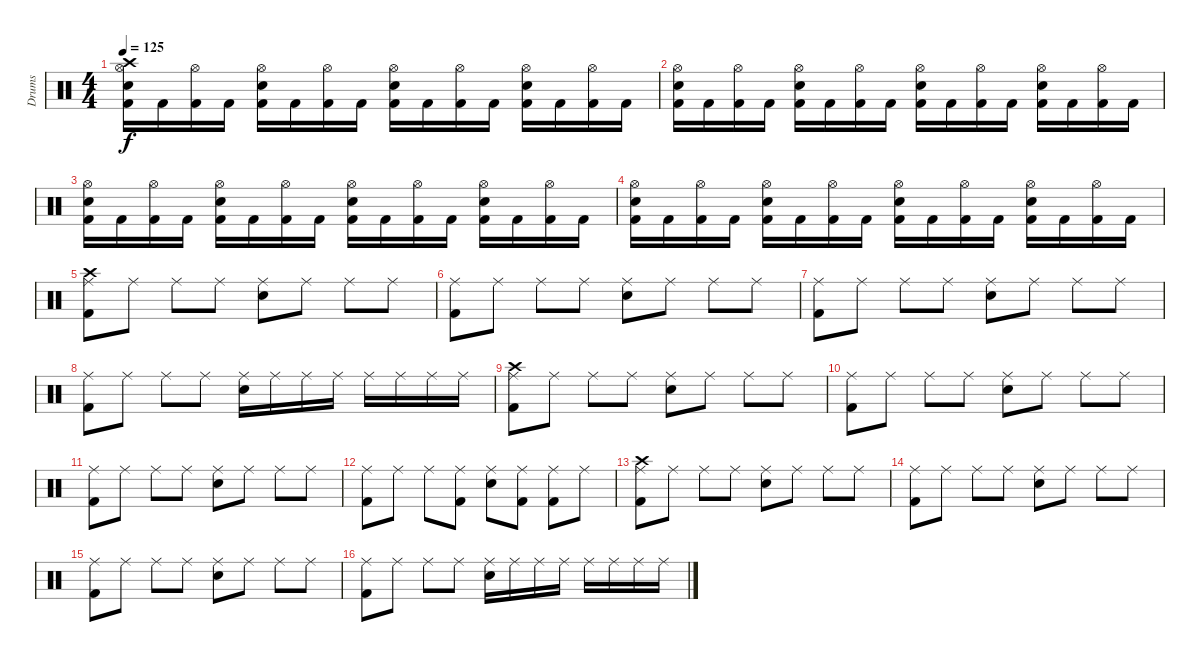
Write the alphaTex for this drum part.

\track ("Drums" "Drums") {instrument percussion}
\staff {score}
\articulation defaults
\ts (4 4)
\tempo 125
\clef neutral
\ks c
("Crash high (hit)" "Hi-Hat (open)" "Snare (hit) 2" "Kick (hit) 2").16{dy f} "Kick (hit) 2".16 ("Hi-Hat (open)" "Kick (hit) 2").16 "Kick (hit) 2".16 ("Hi-Hat (open)" "Snare (hit) 2" "Kick (hit) 2").16 "Kick (hit) 2".16 ("Hi-Hat (open)" "Kick (hit) 2").16 "Kick (hit) 2".16 ("Hi-Hat (open)" "Snare (hit) 2" "Kick (hit) 2").16 "Kick (hit) 2".16 ("Hi-Hat (open)" "Kick (hit) 2").16 "Kick (hit) 2".16 ("Hi-Hat (open)" "Snare (hit) 2" "Kick (hit) 2").16 "Kick (hit) 2".16 ("Hi-Hat (open)" "Kick (hit) 2").16 "Kick (hit) 2".16 |
("Hi-Hat (open)" "Snare (hit) 2" "Kick (hit) 2").16 "Kick (hit) 2".16 ("Hi-Hat (open)" "Kick (hit) 2").16 "Kick (hit) 2".16 ("Hi-Hat (open)" "Snare (hit) 2" "Kick (hit) 2").16 "Kick (hit) 2".16 ("Hi-Hat (open)" "Kick (hit) 2").16 "Kick (hit) 2".16 ("Hi-Hat (open)" "Snare (hit) 2" "Kick (hit) 2").16 "Kick (hit) 2".16 ("Hi-Hat (open)" "Kick (hit) 2").16 "Kick (hit) 2".16 ("Hi-Hat (open)" "Snare (hit) 2" "Kick (hit) 2").16 "Kick (hit) 2".16 ("Hi-Hat (open)" "Kick (hit) 2").16 "Kick (hit) 2".16 |
("Hi-Hat (open)" "Snare (hit) 2" "Kick (hit) 2").16 "Kick (hit) 2".16 ("Hi-Hat (open)" "Kick (hit) 2").16 "Kick (hit) 2".16 ("Hi-Hat (open)" "Snare (hit) 2" "Kick (hit) 2").16 "Kick (hit) 2".16 ("Hi-Hat (open)" "Kick (hit) 2").16 "Kick (hit) 2".16 ("Hi-Hat (open)" "Snare (hit) 2" "Kick (hit) 2").16 "Kick (hit) 2".16 ("Hi-Hat (open)" "Kick (hit) 2").16 "Kick (hit) 2".16 ("Hi-Hat (open)" "Snare (hit) 2" "Kick (hit) 2").16 "Kick (hit) 2".16 ("Hi-Hat (open)" "Kick (hit) 2").16 "Kick (hit) 2".16 |
("Hi-Hat (open)" "Snare (hit) 2" "Kick (hit) 2").16 "Kick (hit) 2".16 ("Hi-Hat (open)" "Kick (hit) 2").16 "Kick (hit) 2".16 ("Hi-Hat (open)" "Snare (hit) 2" "Kick (hit) 2").16 "Kick (hit) 2".16 ("Hi-Hat (open)" "Kick (hit) 2").16 "Kick (hit) 2".16 ("Hi-Hat (open)" "Snare (hit) 2" "Kick (hit) 2").16 "Kick (hit) 2".16 ("Hi-Hat (open)" "Kick (hit) 2").16 "Kick (hit) 2".16 ("Hi-Hat (open)" "Snare (hit) 2" "Kick (hit) 2").16 "Kick (hit) 2".16 ("Hi-Hat (open)" "Kick (hit) 2").16 "Kick (hit) 2".16 |
("Crash high (hit)" "Ride (middle)" "Kick (hit) 2").8 "Ride (middle)".8 "Ride (middle)".8 "Ride (middle)".8 ("Ride (middle)" "Snare (hit) 2").8 "Ride (middle)".8 "Ride (middle)".8 "Ride (middle)".8 |
("Ride (middle)" "Kick (hit) 2").8 "Ride (middle)".8 "Ride (middle)".8 "Ride (middle)".8 ("Ride (middle)" "Snare (hit) 2").8 "Ride (middle)".8 "Ride (middle)".8 "Ride (middle)".8 |
("Ride (middle)" "Kick (hit) 2").8 "Ride (middle)".8 "Ride (middle)".8 "Ride (middle)".8 ("Ride (middle)" "Snare (hit) 2").8 "Ride (middle)".8 "Ride (middle)".8 "Ride (middle)".8 |
("Ride (middle)" "Kick (hit) 2").8 "Ride (middle)".8 "Ride (middle)".8 "Ride (middle)".8 ("Ride (middle)" "Snare (hit) 2").16 "Ride (middle)".16 "Ride (middle)".16 "Ride (middle)".16 "Ride (middle)".16 "Ride (middle)".16 "Ride (middle)".16 "Ride (middle)".16 |
("Crash high (hit)" "Ride (middle)" "Kick (hit) 2").8 "Ride (middle)".8 "Ride (middle)".8 "Ride (middle)".8 ("Ride (middle)" "Snare (hit) 2").8 "Ride (middle)".8 "Ride (middle)".8 "Ride (middle)".8 |
("Ride (middle)" "Kick (hit) 2").8 "Ride (middle)".8 "Ride (middle)".8 "Ride (middle)".8 ("Ride (middle)" "Snare (hit) 2").8 "Ride (middle)".8 "Ride (middle)".8 "Ride (middle)".8 |
("Ride (middle)" "Kick (hit) 2").8 "Ride (middle)".8 "Ride (middle)".8 "Ride (middle)".8 ("Ride (middle)" "Snare (hit) 2").8 "Ride (middle)".8 "Ride (middle)".8 "Ride (middle)".8 |
("Ride (middle)" "Kick (hit) 2").8 "Ride (middle)".8 "Ride (middle)".8 ("Ride (middle)" "Kick (hit) 2").8 ("Ride (middle)" "Snare (hit) 2").8 ("Ride (middle)" "Kick (hit) 2").8 ("Ride (middle)" "Kick (hit) 2").8 "Ride (middle)".8 |
("Crash high (hit)" "Ride (middle)" "Kick (hit) 2").8 "Ride (middle)".8 "Ride (middle)".8 "Ride (middle)".8 ("Ride (middle)" "Snare (hit) 2").8 "Ride (middle)".8 "Ride (middle)".8 "Ride (middle)".8 |
("Ride (middle)" "Kick (hit) 2").8 "Ride (middle)".8 "Ride (middle)".8 "Ride (middle)".8 ("Ride (middle)" "Snare (hit) 2").8 "Ride (middle)".8 "Ride (middle)".8 "Ride (middle)".8 |
("Ride (middle)" "Kick (hit) 2").8 "Ride (middle)".8 "Ride (middle)".8 "Ride (middle)".8 ("Ride (middle)" "Snare (hit) 2").8 "Ride (middle)".8 "Ride (middle)".8 "Ride (middle)".8 |
("Ride (middle)" "Kick (hit) 2").8 "Ride (middle)".8 "Ride (middle)".8 "Ride (middle)".8 ("Ride (middle)" "Snare (hit) 2").16 "Ride (middle)".16 "Ride (middle)".16 "Ride (middle)".16 "Ride (middle)".16 "Ride (middle)".16 "Ride (middle)".16 "Ride (middle)".16
